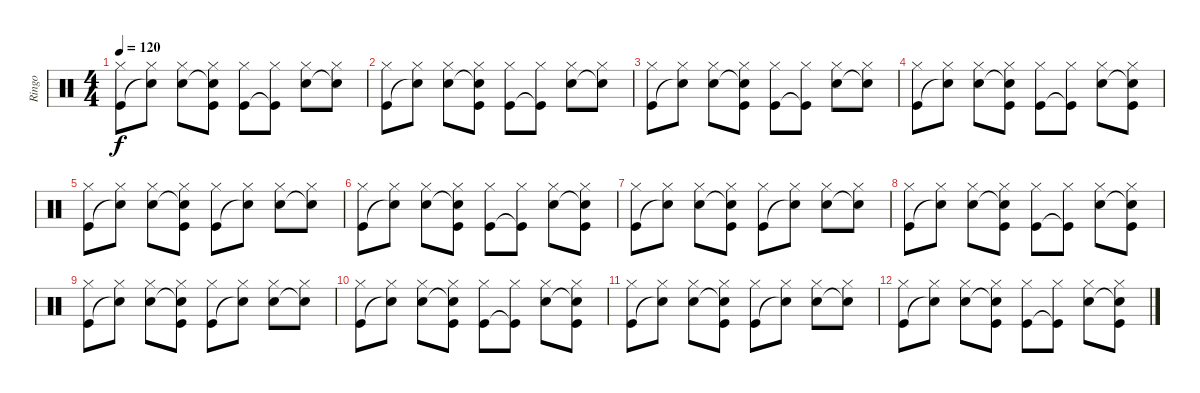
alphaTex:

\track ("Ringo" "Ringo") {instrument percussion}
\staff {score}
\articulation defaults
\ts (4 4)
\tempo 120
\clef neutral
\ks c
("Hi-Hat (closed)" "Kick (hit)").8{dy f} ("Hi-Hat (closed)" "Snare (hit)"{t}).8 ("Hi-Hat (closed)" "Snare (hit) 2").8 ("Hi-Hat (closed)" "Snare (hit)"{t} "Kick (hit)").8 ("Hi-Hat (closed)" "Kick (hit)").8 ("Hi-Hat (closed)" "Kick (hit)"{t}).8 ("Hi-Hat (closed)" "Snare (hit) 2").8 ("Hi-Hat (closed)" "Snare (hit)"{t}).8 |
("Hi-Hat (closed)" "Kick (hit)").8 ("Hi-Hat (closed)" "Snare (hit)"{t}).8 ("Hi-Hat (closed)" "Snare (hit) 2").8 ("Hi-Hat (closed)" "Snare (hit)"{t} "Kick (hit)").8 ("Hi-Hat (closed)" "Kick (hit)").8 ("Hi-Hat (closed)" "Kick (hit)"{t}).8 ("Hi-Hat (closed)" "Snare (hit) 2").8 ("Hi-Hat (closed)" "Snare (hit)"{t}).8 |
("Hi-Hat (closed)" "Kick (hit)").8 ("Hi-Hat (closed)" "Snare (hit)"{t}).8 ("Hi-Hat (closed)" "Snare (hit) 2").8 ("Hi-Hat (closed)" "Snare (hit)"{t} "Kick (hit)").8 ("Hi-Hat (closed)" "Kick (hit)").8 ("Hi-Hat (closed)" "Kick (hit)"{t}).8 ("Hi-Hat (closed)" "Snare (hit) 2").8 ("Hi-Hat (closed)" "Snare (hit)"{t}).8 |
("Hi-Hat (closed)" "Kick (hit)").8 ("Hi-Hat (closed)" "Snare (hit)"{t}).8 ("Hi-Hat (closed)" "Snare (hit) 2").8 ("Hi-Hat (closed)" "Snare (hit)"{t} "Kick (hit)").8 ("Hi-Hat (closed)" "Kick (hit)").8 ("Hi-Hat (closed)" "Kick (hit)"{t}).8 ("Hi-Hat (closed)" "Snare (hit) 2").8 ("Hi-Hat (closed)" "Snare (hit)"{t} "Kick (hit)").8 |
("Hi-Hat (closed)" "Kick (hit)").8 ("Hi-Hat (closed)" "Snare (hit)"{t}).8 ("Hi-Hat (closed)" "Snare (hit) 2").8 ("Hi-Hat (closed)" "Snare (hit)"{t} "Kick (hit)").8 ("Hi-Hat (closed)" "Kick (hit)").8 ("Hi-Hat (closed)" "Snare (hit)"{t}).8 ("Hi-Hat (closed)" "Snare (hit) 2").8 ("Hi-Hat (closed)" "Snare (hit)"{t}).8 |
("Hi-Hat (closed)" "Kick (hit)").8 ("Hi-Hat (closed)" "Snare (hit)"{t}).8 ("Hi-Hat (closed)" "Snare (hit) 2").8 ("Hi-Hat (closed)" "Snare (hit)"{t} "Kick (hit)").8 ("Hi-Hat (closed)" "Kick (hit)").8 ("Hi-Hat (closed)" "Kick (hit)"{t}).8 ("Hi-Hat (closed)" "Snare (hit) 2").8 ("Hi-Hat (closed)" "Snare (hit)"{t} "Kick (hit)").8 |
("Hi-Hat (closed)" "Kick (hit)").8 ("Hi-Hat (closed)" "Snare (hit)"{t}).8 ("Hi-Hat (closed)" "Snare (hit) 2").8 ("Hi-Hat (closed)" "Snare (hit)"{t} "Kick (hit)").8 ("Hi-Hat (closed)" "Kick (hit)").8 ("Hi-Hat (closed)" "Snare (hit)"{t}).8 ("Hi-Hat (closed)" "Snare (hit) 2").8 ("Hi-Hat (closed)" "Snare (hit)"{t}).8 |
("Hi-Hat (closed)" "Kick (hit)").8{volume 10} ("Hi-Hat (closed)" "Snare (hit)"{t}).8 ("Hi-Hat (closed)" "Snare (hit) 2").8 ("Hi-Hat (closed)" "Snare (hit)"{t} "Kick (hit)").8 ("Hi-Hat (closed)" "Kick (hit)").8 ("Hi-Hat (closed)" "Kick (hit)"{t}).8 ("Hi-Hat (closed)" "Snare (hit) 2").8 ("Hi-Hat (closed)" "Snare (hit)"{t} "Kick (hit)").8 |
("Hi-Hat (closed)" "Kick (hit)").8{volume 8} ("Hi-Hat (closed)" "Snare (hit)"{t}).8 ("Hi-Hat (closed)" "Snare (hit) 2").8 ("Hi-Hat (closed)" "Snare (hit)"{t} "Kick (hit)").8 ("Hi-Hat (closed)" "Kick (hit)").8 ("Hi-Hat (closed)" "Snare (hit)"{t}).8 ("Hi-Hat (closed)" "Snare (hit) 2").8 ("Hi-Hat (closed)" "Snare (hit)"{t}).8 |
("Hi-Hat (closed)" "Kick (hit)").8{volume 6} ("Hi-Hat (closed)" "Snare (hit)"{t}).8 ("Hi-Hat (closed)" "Snare (hit) 2").8 ("Hi-Hat (closed)" "Snare (hit)"{t} "Kick (hit)").8 ("Hi-Hat (closed)" "Kick (hit)").8 ("Hi-Hat (closed)" "Kick (hit)"{t}).8 ("Hi-Hat (closed)" "Snare (hit) 2").8 ("Hi-Hat (closed)" "Snare (hit)"{t} "Kick (hit)").8 |
("Hi-Hat (closed)" "Kick (hit)").8{volume 4} ("Hi-Hat (closed)" "Snare (hit)"{t}).8 ("Hi-Hat (closed)" "Snare (hit) 2").8 ("Hi-Hat (closed)" "Snare (hit)"{t} "Kick (hit)").8 ("Hi-Hat (closed)" "Kick (hit)").8 ("Hi-Hat (closed)" "Snare (hit)"{t}).8 ("Hi-Hat (closed)" "Snare (hit) 2").8 ("Hi-Hat (closed)" "Snare (hit)"{t}).8 |
("Hi-Hat (closed)" "Kick (hit)").8{volume 3} ("Hi-Hat (closed)" "Snare (hit)"{t}).8 ("Hi-Hat (closed)" "Snare (hit) 2").8 ("Hi-Hat (closed)" "Snare (hit)"{t} "Kick (hit)").8 ("Hi-Hat (closed)" "Kick (hit)").8{volume 2} ("Hi-Hat (closed)" "Kick (hit)"{t}).8 ("Hi-Hat (closed)" "Snare (hit) 2").8 ("Hi-Hat (closed)" "Snare (hit)"{t} "Kick (hit)").8
